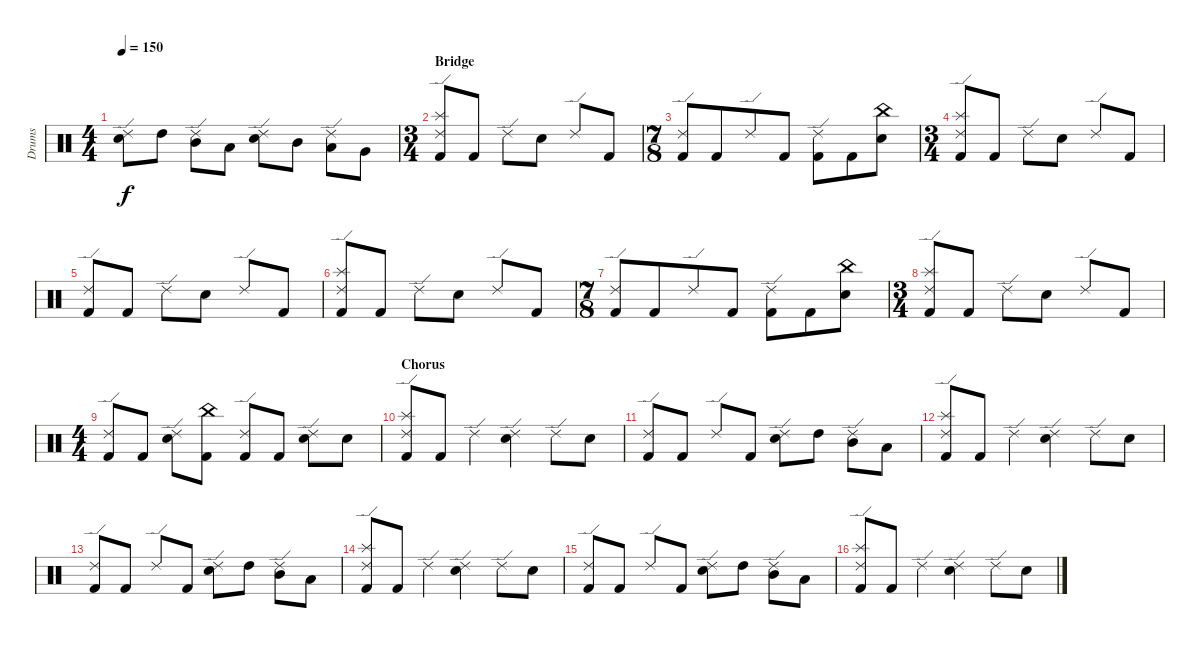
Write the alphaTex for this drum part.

\track ("Drums" "Drums") {instrument percussion}
\staff {score}
\articulation defaults
\ts (4 4)
\tempo 150
\clef neutral
\ks c
("Ride (edge) 2" "Electric Snare (hit)").8{dy f} "High Tom (hit)".8 ("Ride (edge) 2" "Mid Tom (hit)").8 "Low Tom (hit)".8 ("Ride (edge) 2" "Electric Snare (hit)").8 "Mid Tom (hit)".8 ("Ride (edge) 2" "Low Tom (hit)").8 "Very Low Tom (hit)".8 |
\ts (3 4)
\section ("" "Bridge")
("Splash (hit)" "Ride (edge) 2" "Kick (hit) 2").8 "Kick (hit) 2".8 "Ride (edge) 2".8 "Electric Snare (hit)".8 "Ride (edge) 2".8 "Kick (hit) 2".8 |
\ts (7 8)
("Ride (edge) 2" "Kick (hit) 2").8 "Kick (hit) 2".8 "Ride (edge) 2".8 "Kick (hit) 2".8 ("Ride (edge) 2" "Kick (hit) 2").8 "Kick (hit) 2".8 ("China (hit)" "Electric Snare (hit)").8 |
\ts (3 4)
("Splash (hit)" "Ride (edge) 2" "Kick (hit) 2").8 "Kick (hit) 2".8 "Ride (edge) 2".8 "Electric Snare (hit)".8 "Ride (edge) 2".8 "Kick (hit) 2".8 |
("Ride (edge) 2" "Kick (hit) 2").8 "Kick (hit) 2".8 "Ride (edge) 2".8 "Electric Snare (hit)".8 "Ride (edge) 2".8 "Kick (hit) 2".8 |
("Splash (hit)" "Ride (edge) 2" "Kick (hit) 2").8 "Kick (hit) 2".8 "Ride (edge) 2".8 "Electric Snare (hit)".8 "Ride (edge) 2".8 "Kick (hit) 2".8 |
\ts (7 8)
("Ride (edge) 2" "Kick (hit) 2").8 "Kick (hit) 2".8 "Ride (edge) 2".8 "Kick (hit) 2".8 ("Ride (edge) 2" "Kick (hit) 2").8 "Kick (hit) 2".8 ("China (hit)" "Electric Snare (hit)").8 |
\ts (3 4)
("Splash (hit)" "Ride (edge) 2" "Kick (hit) 2").8 "Kick (hit) 2".8 "Ride (edge) 2".8 "Electric Snare (hit)".8 "Ride (edge) 2".8 "Kick (hit) 2".8 |
\ts (4 4)
("Ride (edge) 2" "Kick (hit) 2").8 "Kick (hit) 2".8 ("Ride (edge) 2" "Electric Snare (hit)").8 ("China (hit)" "Kick (hit) 2").8 ("Ride (edge) 2" "Kick (hit) 2").8 "Kick (hit) 2".8 ("Ride (edge) 2" "Electric Snare (hit)").8 "Electric Snare (hit)".8 |
\section ("" "Chorus")
("Splash (hit)" "Ride (edge) 2" "Kick (hit) 2").8 "Kick (hit) 2".8 "Ride (edge) 2".4 ("Ride (edge) 2" "Electric Snare (hit)").4 "Ride (edge) 2".8 "Electric Snare (hit)".8 |
("Ride (edge) 2" "Kick (hit) 2").8 "Kick (hit) 2".8 "Ride (edge) 2".8 "Kick (hit) 2".8 ("Ride (edge) 2" "Electric Snare (hit)").8 "High Tom (hit)".8 ("Ride (edge) 2" "Mid Tom (hit)").8 "Low Tom (hit)".8 |
("Splash (hit)" "Ride (edge) 2" "Kick (hit) 2").8 "Kick (hit) 2".8 "Ride (edge) 2".4 ("Ride (edge) 2" "Electric Snare (hit)").4 "Ride (edge) 2".8 "Electric Snare (hit)".8 |
("Ride (edge) 2" "Kick (hit) 2").8 "Kick (hit) 2".8 "Ride (edge) 2".8 "Kick (hit) 2".8 ("Ride (edge) 2" "Electric Snare (hit)").8 "High Tom (hit)".8 ("Ride (edge) 2" "Mid Tom (hit)").8 "Low Tom (hit)".8 |
("Splash (hit)" "Ride (edge) 2" "Kick (hit) 2").8 "Kick (hit) 2".8 "Ride (edge) 2".4 ("Ride (edge) 2" "Electric Snare (hit)").4 "Ride (edge) 2".8 "Electric Snare (hit)".8 |
("Ride (edge) 2" "Kick (hit) 2").8 "Kick (hit) 2".8 "Ride (edge) 2".8 "Kick (hit) 2".8 ("Ride (edge) 2" "Electric Snare (hit)").8 "High Tom (hit)".8 ("Ride (edge) 2" "Mid Tom (hit)").8 "Low Tom (hit)".8 |
("Splash (hit)" "Ride (edge) 2" "Kick (hit) 2").8 "Kick (hit) 2".8 "Ride (edge) 2".4 ("Ride (edge) 2" "Electric Snare (hit)").4 "Ride (edge) 2".8 "Electric Snare (hit)".8
